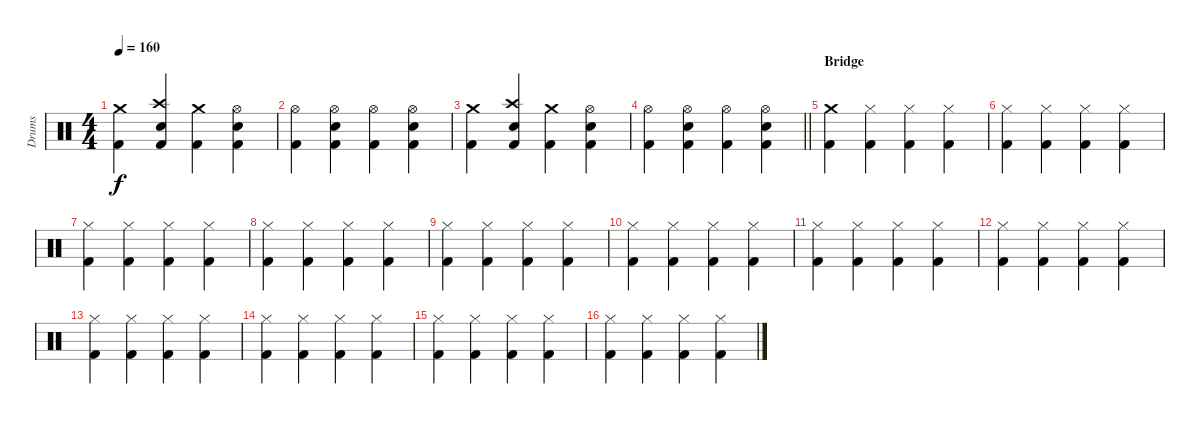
\track ("Drums" "Drums") {instrument percussion}
\staff {score}
\articulation defaults
\ts (4 4)
\tempo 160
\clef neutral
\ks c
("Crash medium (hit)" "Kick (hit) 2").4{dy f} ("Crash high (hit)" "Electric Snare (hit)" "Kick (hit) 2").4 ("Crash medium (hit)" "Kick (hit) 2").4 ("Hi-Hat (open)" "Electric Snare (hit)" "Kick (hit) 2").4 |
("Hi-Hat (open)" "Kick (hit) 2").4 ("Hi-Hat (open)" "Electric Snare (hit)" "Kick (hit) 2").4 ("Hi-Hat (open)" "Kick (hit) 2").4 ("Hi-Hat (open)" "Electric Snare (hit)" "Kick (hit) 2").4 |
("Crash medium (hit)" "Kick (hit) 2").4 ("Crash high (hit)" "Electric Snare (hit)" "Kick (hit) 2").4 ("Crash medium (hit)" "Kick (hit) 2").4 ("Hi-Hat (open)" "Electric Snare (hit)" "Kick (hit) 2").4 |
\barLineRight lightlight
("Hi-Hat (open)" "Kick (hit) 2").4 ("Hi-Hat (open)" "Electric Snare (hit)" "Kick (hit) 2").4 ("Hi-Hat (open)" "Kick (hit) 2").4 ("Hi-Hat (open)" "Electric Snare (hit)" "Kick (hit) 2").4 |
\section ("" "Bridge")
("Crash medium (hit)" "Kick (hit) 2").4 ("Hi-Hat (closed)" "Kick (hit) 2").4 ("Hi-Hat (closed)" "Kick (hit) 2").4 ("Hi-Hat (closed)" "Kick (hit) 2").4 |
("Hi-Hat (closed)" "Kick (hit) 2").4 ("Hi-Hat (closed)" "Kick (hit) 2").4 ("Hi-Hat (closed)" "Kick (hit) 2").4 ("Hi-Hat (closed)" "Kick (hit) 2").4 |
("Hi-Hat (closed)" "Kick (hit) 2").4 ("Hi-Hat (closed)" "Kick (hit) 2").4 ("Hi-Hat (closed)" "Kick (hit) 2").4 ("Hi-Hat (closed)" "Kick (hit) 2").4 |
("Hi-Hat (closed)" "Kick (hit) 2").4 ("Hi-Hat (closed)" "Kick (hit) 2").4 ("Hi-Hat (closed)" "Kick (hit) 2").4 ("Hi-Hat (closed)" "Kick (hit) 2").4 |
("Hi-Hat (closed)" "Kick (hit) 2").4 ("Hi-Hat (closed)" "Kick (hit) 2").4 ("Hi-Hat (closed)" "Kick (hit) 2").4 ("Hi-Hat (closed)" "Kick (hit) 2").4 |
("Hi-Hat (closed)" "Kick (hit) 2").4 ("Hi-Hat (closed)" "Kick (hit) 2").4 ("Hi-Hat (closed)" "Kick (hit) 2").4 ("Hi-Hat (closed)" "Kick (hit) 2").4 |
("Hi-Hat (closed)" "Kick (hit) 2").4 ("Hi-Hat (closed)" "Kick (hit) 2").4 ("Hi-Hat (closed)" "Kick (hit) 2").4 ("Hi-Hat (closed)" "Kick (hit) 2").4 |
("Hi-Hat (closed)" "Kick (hit) 2").4 ("Hi-Hat (closed)" "Kick (hit) 2").4 ("Hi-Hat (closed)" "Kick (hit) 2").4 ("Hi-Hat (closed)" "Kick (hit) 2").4 |
("Hi-Hat (closed)" "Kick (hit) 2").4 ("Hi-Hat (closed)" "Kick (hit) 2").4 ("Hi-Hat (closed)" "Kick (hit) 2").4 ("Hi-Hat (closed)" "Kick (hit) 2").4 |
("Hi-Hat (closed)" "Kick (hit) 2").4 ("Hi-Hat (closed)" "Kick (hit) 2").4 ("Hi-Hat (closed)" "Kick (hit) 2").4 ("Hi-Hat (closed)" "Kick (hit) 2").4 |
("Hi-Hat (closed)" "Kick (hit) 2").4 ("Hi-Hat (closed)" "Kick (hit) 2").4 ("Hi-Hat (closed)" "Kick (hit) 2").4 ("Hi-Hat (closed)" "Kick (hit) 2").4 |
("Hi-Hat (closed)" "Kick (hit) 2").4 ("Hi-Hat (closed)" "Kick (hit) 2").4 ("Hi-Hat (closed)" "Kick (hit) 2").4 ("Hi-Hat (closed)" "Kick (hit) 2").4
